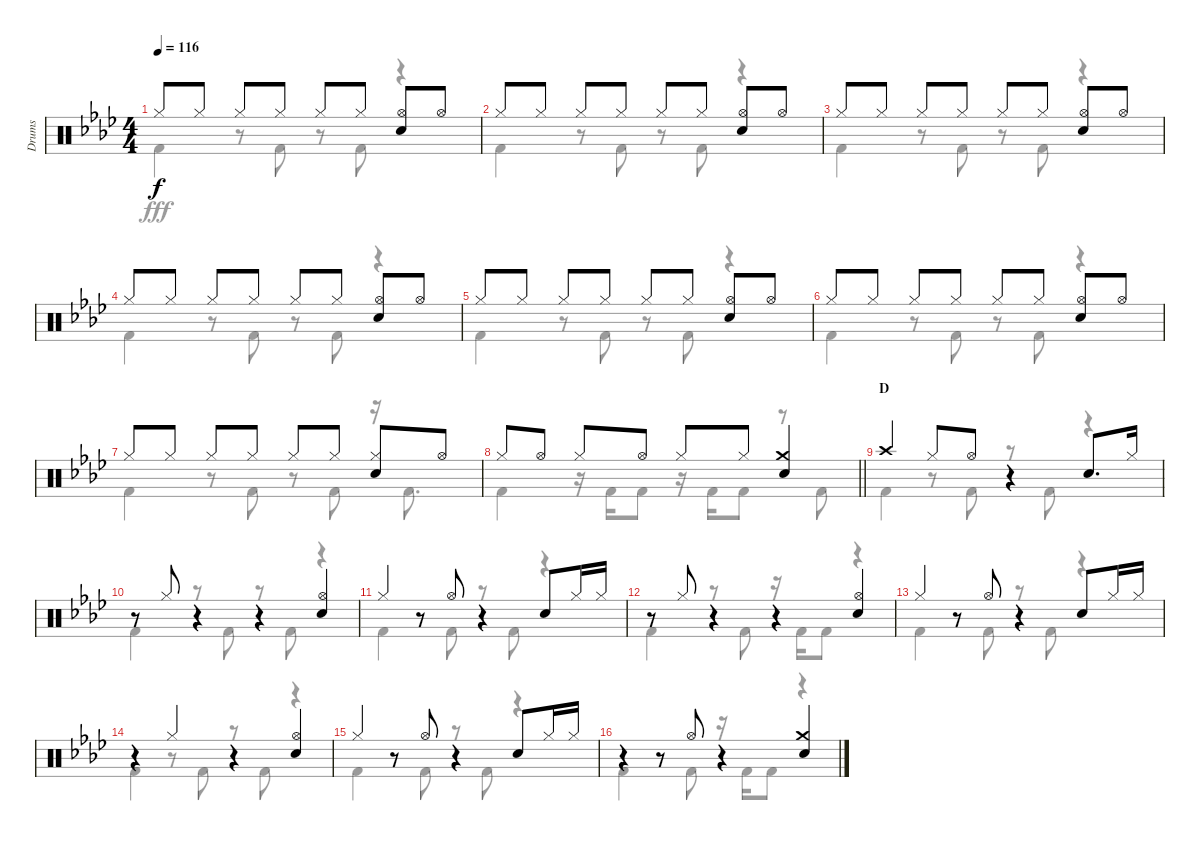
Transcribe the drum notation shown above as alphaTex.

\track ("Drums" "Drums") {instrument percussion}
\staff {score}
\articulation defaults
\voice
\ts (4 4)
\tempo 116
\clef neutral
\ks ab "Hi-Hat (closed)".8{dy f} "Hi-Hat (closed)".8 "Hi-Hat (closed)".8 "Hi-Hat (closed)".8 "Hi-Hat (closed)".8 "Hi-Hat (closed)".8
("Hi-Hat (open)" "Snare (hit) 2").8 "Hi-Hat (open)".8 |
"Hi-Hat (closed)".8 "Hi-Hat (closed)".8 "Hi-Hat (closed)".8 "Hi-Hat (closed)".8 "Hi-Hat (closed)".8 "Hi-Hat (closed)".8 ("Hi-Hat (open)" "Snare (hit) 2").8 "Hi-Hat (open)".8 |
"Hi-Hat (closed)".8 "Hi-Hat (closed)".8 "Hi-Hat (closed)".8 "Hi-Hat (closed)".8 "Hi-Hat (closed)".8 "Hi-Hat (closed)".8 ("Hi-Hat (open)" "Snare (hit) 2").8 "Hi-Hat (open)".8 |
"Hi-Hat (closed)".8 "Hi-Hat (closed)".8 "Hi-Hat (closed)".8 "Hi-Hat (closed)".8 "Hi-Hat (closed)".8 "Hi-Hat (closed)".8 ("Hi-Hat (open)" "Snare (hit) 2").8 "Hi-Hat (open)".8 |
"Hi-Hat (closed)".8 "Hi-Hat (closed)".8 "Hi-Hat (closed)".8 "Hi-Hat (closed)".8 "Hi-Hat (closed)".8 "Hi-Hat (closed)".8 ("Hi-Hat (open)" "Snare (hit) 2").8 "Hi-Hat (open)".8 |
"Hi-Hat (closed)".8 "Hi-Hat (closed)".8 "Hi-Hat (closed)".8 "Hi-Hat (closed)".8 "Hi-Hat (closed)".8 "Hi-Hat (closed)".8 ("Hi-Hat (open)" "Snare (hit) 2").8 "Hi-Hat (open)".8 |
"Hi-Hat (closed)".8 "Hi-Hat (closed)".8 "Hi-Hat (closed)".8 "Hi-Hat (closed)".8 "Hi-Hat (closed)".8 "Hi-Hat (closed)".8 ("Hi-Hat (closed)" "Snare (hit) 2").8 "Hi-Hat (open)".8 |
\barLineRight lightlight "Hi-Hat (closed)".8 "Hi-Hat (open)".8 "Hi-Hat (closed)".8 "Hi-Hat (open)".8 "Hi-Hat (closed)".8 "Hi-Hat (closed)".8
("Crash medium (hit)" "Snare (hit) 2").4 |
\section ("" "D")
"Crash high (hit)".4 "Hi-Hat (closed)".8 "Hi-Hat (open)".8 r.4 "Snare (hit) 2".8{d} "Hi-Hat (closed)".16 |
r.8 "Hi-Hat (closed)".8 r.4 r.4 ("Hi-Hat (open)" "Snare (hit) 2").4 |
"Hi-Hat (closed)".4 r.8 "Hi-Hat (open)".8 r.4 "Snare (hit) 2".8 "Hi-Hat (closed)".16 "Hi-Hat (closed)".16 |
r.8 "Hi-Hat (closed)".8 r.4 r.4 ("Hi-Hat (open)" "Snare (hit) 2").4 |
"Hi-Hat (closed)".4 r.8 "Hi-Hat (open)".8 r.4 "Snare (hit) 2".8 "Hi-Hat (closed)".16 "Hi-Hat (closed)".16 |
r.4 "Hi-Hat (closed)".4 r.4 ("Hi-Hat (open)" "Snare (hit) 2").4 |
"Hi-Hat (closed)".4 r.8 "Hi-Hat (open)".8 r.4 "Snare (hit) 2".8 "Hi-Hat (closed)".16 "Hi-Hat (closed)".16 |
r.4 r.8 "Hi-Hat (open)".8 r.4 ("Crash medium (hit)" "Snare (hit) 2").4
\voice
\clef neutral
\ottava regular
\simile none
\ks ab "Kick (hit) 2".4{dy fff}
r.8 "Kick (hit) 2".8 r.8 "Kick (hit) 2".8 r.4 |
"Kick (hit) 2".4 r.8 "Kick (hit) 2".8 r.8 "Kick (hit) 2".8 r.4 |
"Kick (hit) 2".4 r.8 "Kick (hit) 2".8 r.8 "Kick (hit) 2".8 r.4 |
"Kick (hit) 2".4 r.8 "Kick (hit) 2".8 r.8 "Kick (hit) 2".8 r.4 |
"Kick (hit) 2".4 r.8 "Kick (hit) 2".8 r.8 "Kick (hit) 2".8 r.4 |
"Kick (hit) 2".4 r.8 "Kick (hit) 2".8 r.8 "Kick (hit) 2".8 r.4 |
"Kick (hit) 2".4 r.8 "Kick (hit) 2".8 r.8 "Kick (hit) 2".8 r.16 "Kick (hit) 2".8{d} |
\barLineRight lightlight "Kick (hit) 2".4
r.16 "Kick (hit) 2".16 "Kick (hit) 2".8 r.16 "Kick (hit) 2".16 "Kick (hit) 2".8 r.8 "Kick (hit) 2".8 |
"Kick (hit) 2".4 r.8 "Kick (hit) 2".8 r.8 "Kick (hit) 2".8 r.4 |
"Kick (hit) 2".4 r.8 "Kick (hit) 2".8 r.8 "Kick (hit) 2".8 r.4 |
"Kick (hit) 2".4 r.8 "Kick (hit) 2".8 r.8 "Kick (hit) 2".8 r.4 |
"Kick (hit) 2".4 r.8 "Kick (hit) 2".8 r.16 "Kick (hit) 2".16 "Kick (hit) 2".8 r.4 |
"Kick (hit) 2".4 r.8 "Kick (hit) 2".8 r.8 "Kick (hit) 2".8 r.4 |
"Kick (hit) 2".4 r.8 "Kick (hit) 2".8 r.8 "Kick (hit) 2".8 r.4 |
"Kick (hit) 2".4 r.8 "Kick (hit) 2".8 r.8 "Kick (hit) 2".8 r.4 |
"Kick (hit) 2".4 r.8 "Kick (hit) 2".8 r.16 "Kick (hit) 2".16 "Kick (hit) 2".8 r.4
